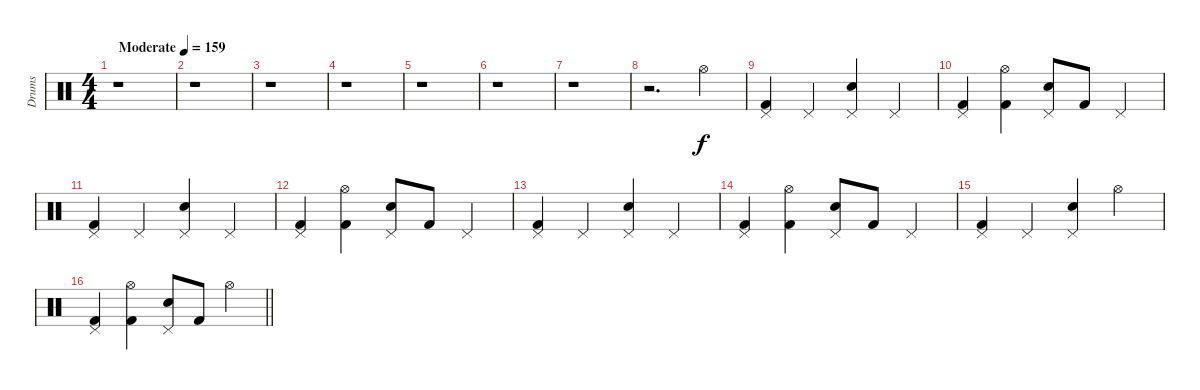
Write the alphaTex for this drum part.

\track ("Drums" "Drums") {instrument percussion}
\staff {score}
\articulation defaults
\ts (4 4)
\tempo (159 "Moderate")
\clef neutral
\ks c
r.1{dy f} |
r.1 |
r.1 |
r.1 |
r.1 |
r.1 |
r.1 |
r.2{d} "Hi-Hat (open)".4 |
("Pedal Hi-Hat (hit)" "Kick (hit) 2").4 "Pedal Hi-Hat (hit)".4 ("Pedal Hi-Hat (hit)" "Snare (hit) 2").4 "Pedal Hi-Hat (hit)".4 |
("Pedal Hi-Hat (hit)" "Kick (hit) 2").4 ("Hi-Hat (open)" "Kick (hit) 2").4 ("Pedal Hi-Hat (hit)" "Snare (hit) 2").8 "Kick (hit) 2".8 "Pedal Hi-Hat (hit)".4 |
("Pedal Hi-Hat (hit)" "Kick (hit) 2").4 "Pedal Hi-Hat (hit)".4 ("Pedal Hi-Hat (hit)" "Snare (hit) 2").4 "Pedal Hi-Hat (hit)".4 |
("Pedal Hi-Hat (hit)" "Kick (hit) 2").4 ("Hi-Hat (open)" "Kick (hit) 2").4 ("Pedal Hi-Hat (hit)" "Snare (hit) 2").8 "Kick (hit) 2".8 "Pedal Hi-Hat (hit)".4 |
("Pedal Hi-Hat (hit)" "Kick (hit) 2").4 "Pedal Hi-Hat (hit)".4 ("Pedal Hi-Hat (hit)" "Snare (hit) 2").4 "Pedal Hi-Hat (hit)".4 |
("Pedal Hi-Hat (hit)" "Kick (hit) 2").4 ("Hi-Hat (open)" "Kick (hit) 2").4 ("Pedal Hi-Hat (hit)" "Snare (hit) 2").8 "Kick (hit) 2".8 "Pedal Hi-Hat (hit)".4 |
("Pedal Hi-Hat (hit)" "Kick (hit) 2").4 "Pedal Hi-Hat (hit)".4 ("Pedal Hi-Hat (hit)" "Snare (hit) 2").4 "Hi-Hat (open)".4 |
\barLineRight lightlight
("Pedal Hi-Hat (hit)" "Kick (hit) 2").4 ("Hi-Hat (open)" "Kick (hit) 2").4 ("Pedal Hi-Hat (hit)" "Snare (hit) 2").8 "Kick (hit) 2".8 "Hi-Hat (open)".4
